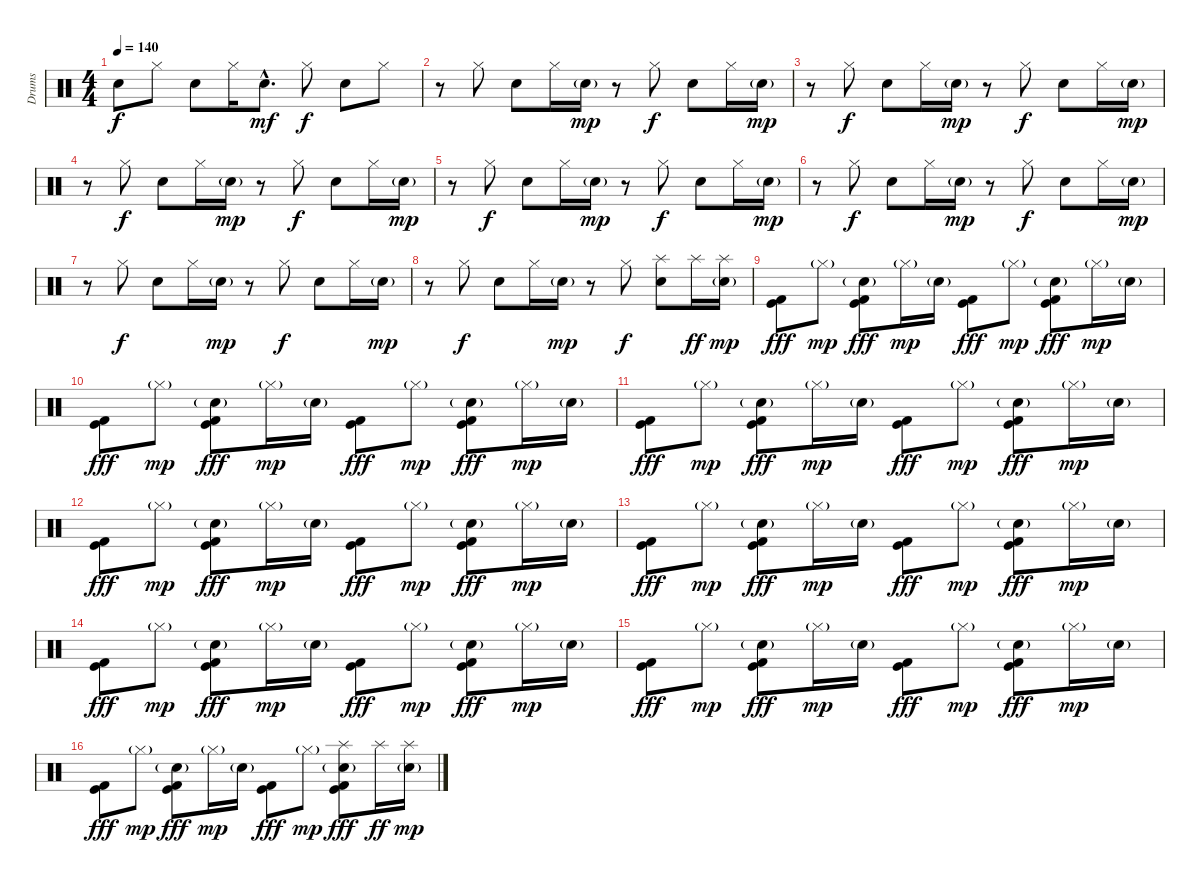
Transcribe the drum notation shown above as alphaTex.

\track ("Drums" "Drums") {instrument percussion}
\staff {score}
\articulation defaults
\ts (4 4)
\tempo 140
\clef neutral
\ks c "Snare (hit)"{t}.8{dy f} "Hi-Hat (closed)".8{volume 7} "Hand Clap (hit)".8 "Hi-Hat (closed)".16 "Hand Clap (hit)"{hac}.8{d dy mf} "Hi-Hat (closed)".8{dy f} "Hand Clap (hit)".8 "Hi-Hat (closed)".8
|
r.8 "Hi-Hat (closed)".8 "Hand Clap (hit)".8 "Hi-Hat (closed)".16 "Hand Clap (hit)"{g}.16{dy mp} r.8 "Hi-Hat (closed)".8{dy f} "Hand Clap (hit)".8 "Hi-Hat (closed)".16 "Hand Clap (hit)"{g}.16{dy mp} |
r.8 "Hi-Hat (closed)".8{dy f} "Hand Clap (hit)".8 "Hi-Hat (closed)".16 "Hand Clap (hit)"{g}.16{dy mp} r.8 "Hi-Hat (closed)".8{dy f} "Hand Clap (hit)".8 "Hi-Hat (closed)".16 "Hand Clap (hit)"{g}.16{dy mp} |
r.8{volume 13} "Hi-Hat (closed)".8{dy f} "Hand Clap (hit)".8 "Hi-Hat (closed)".16 "Hand Clap (hit)"{g}.16{dy mp} r.8 "Hi-Hat (closed)".8{dy f} "Hand Clap (hit)".8 "Hi-Hat (closed)".16 "Hand Clap (hit)"{g}.16{dy mp} |
r.8 "Hi-Hat (closed)".8{dy f} "Hand Clap (hit)".8 "Hi-Hat (closed)".16 "Hand Clap (hit)"{g}.16{dy mp} r.8 "Hi-Hat (closed)".8{dy f} "Hand Clap (hit)".8 "Hi-Hat (closed)".16 "Hand Clap (hit)"{g}.16{dy mp} |
r.8 "Hi-Hat (closed)".8{dy f} "Hand Clap (hit)".8 "Hi-Hat (closed)".16 "Hand Clap (hit)"{g}.16{dy mp} r.8 "Hi-Hat (closed)".8{dy f} "Hand Clap (hit)".8 "Hi-Hat (closed)".16 "Hand Clap (hit)"{g}.16{dy mp} |
r.8 "Hi-Hat (closed)".8{dy f} "Hand Clap (hit)".8 "Hi-Hat (closed)".16 "Hand Clap (hit)"{g}.16{dy mp} r.8 "Hi-Hat (closed)".8{dy f} "Hand Clap (hit)".8 "Hi-Hat (closed)".16 "Hand Clap (hit)"{g}.16{dy mp} |
r.8 "Hi-Hat (closed)".8{dy f} "Hand Clap (hit)".8 "Hi-Hat (closed)".16 "Hand Clap (hit)"{g}.16{dy mp} r.8 "Hi-Hat (closed)".8{dy f} ("Splash (hit)" "Hand Clap (hit)").8 "Splash (hit)".16{dy ff} ("Splash (hit)" "Hand Clap (hit)"{g}).16{dy mp} |
("Kick (hit) 2" "Kick (hit)").8{dy fff} "Hi-Hat (closed)"{g}.8{dy mp} ("Hand Clap (hit)"{g} "Kick (hit) 2" "Kick (hit)").8{dy fff} "Hi-Hat (closed)"{g}.16{dy mp} "Hand Clap (hit)"{g}.16 ("Kick (hit) 2" "Kick (hit)").8{dy fff} "Hi-Hat (closed)"{g}.8{dy mp} ("Hand Clap (hit)"{g} "Kick (hit) 2" "Kick (hit)").8{dy fff} "Hi-Hat (closed)"{g}.16{dy mp} "Hand Clap (hit)"{g}.16 |
("Kick (hit) 2" "Kick (hit)").8{dy fff} "Hi-Hat (closed)"{g}.8{dy mp} ("Hand Clap (hit)"{g} "Kick (hit) 2" "Kick (hit)").8{dy fff} "Hi-Hat (closed)"{g}.16{dy mp} "Hand Clap (hit)"{g}.16 ("Kick (hit) 2" "Kick (hit)").8{dy fff} "Hi-Hat (closed)"{g}.8{dy mp} ("Hand Clap (hit)"{g} "Kick (hit) 2" "Kick (hit)").8{dy fff} "Hi-Hat (closed)"{g}.16{dy mp} "Hand Clap (hit)"{g}.16 |
("Kick (hit) 2" "Kick (hit)").8{dy fff} "Hi-Hat (closed)"{g}.8{dy mp} ("Hand Clap (hit)"{g} "Kick (hit) 2" "Kick (hit)").8{dy fff} "Hi-Hat (closed)"{g}.16{dy mp} "Hand Clap (hit)"{g}.16 ("Kick (hit) 2" "Kick (hit)").8{dy fff} "Hi-Hat (closed)"{g}.8{dy mp} ("Hand Clap (hit)"{g} "Kick (hit) 2" "Kick (hit)").8{dy fff} "Hi-Hat (closed)"{g}.16{dy mp} "Hand Clap (hit)"{g}.16 |
("Kick (hit) 2" "Kick (hit)").8{dy fff} "Hi-Hat (closed)"{g}.8{dy mp} ("Hand Clap (hit)"{g} "Kick (hit) 2" "Kick (hit)").8{dy fff} "Hi-Hat (closed)"{g}.16{dy mp} "Hand Clap (hit)"{g}.16 ("Kick (hit) 2" "Kick (hit)").8{dy fff} "Hi-Hat (closed)"{g}.8{dy mp} ("Hand Clap (hit)"{g} "Kick (hit) 2" "Kick (hit)").8{dy fff} "Hi-Hat (closed)"{g}.16{dy mp} "Hand Clap (hit)"{g}.16 |
("Kick (hit) 2" "Kick (hit)").8{dy fff} "Hi-Hat (closed)"{g}.8{dy mp} ("Hand Clap (hit)"{g} "Kick (hit) 2" "Kick (hit)").8{dy fff} "Hi-Hat (closed)"{g}.16{dy mp} "Hand Clap (hit)"{g}.16 ("Kick (hit) 2" "Kick (hit)").8{dy fff} "Hi-Hat (closed)"{g}.8{dy mp} ("Hand Clap (hit)"{g} "Kick (hit) 2" "Kick (hit)").8{dy fff} "Hi-Hat (closed)"{g}.16{dy mp} "Hand Clap (hit)"{g}.16 |
("Kick (hit) 2" "Kick (hit)").8{dy fff} "Hi-Hat (closed)"{g}.8{dy mp} ("Hand Clap (hit)"{g} "Kick (hit) 2" "Kick (hit)").8{dy fff} "Hi-Hat (closed)"{g}.16{dy mp} "Hand Clap (hit)"{g}.16 ("Kick (hit) 2" "Kick (hit)").8{dy fff} "Hi-Hat (closed)"{g}.8{dy mp} ("Hand Clap (hit)"{g} "Kick (hit) 2" "Kick (hit)").8{dy fff} "Hi-Hat (closed)"{g}.16{dy mp} "Hand Clap (hit)"{g}.16 |
("Kick (hit) 2" "Kick (hit)").8{dy fff} "Hi-Hat (closed)"{g}.8{dy mp} ("Hand Clap (hit)"{g} "Kick (hit) 2" "Kick (hit)").8{dy fff} "Hi-Hat (closed)"{g}.16{dy mp} "Hand Clap (hit)"{g}.16 ("Kick (hit) 2" "Kick (hit)").8{dy fff} "Hi-Hat (closed)"{g}.8{dy mp} ("Hand Clap (hit)"{g} "Kick (hit) 2" "Kick (hit)").8{dy fff} "Hi-Hat (closed)"{g}.16{dy mp} "Hand Clap (hit)"{g}.16 |
("Kick (hit) 2" "Kick (hit)").8{dy fff} "Hi-Hat (closed)"{g}.8{dy mp} ("Hand Clap (hit)"{g} "Kick (hit) 2" "Kick (hit)").8{dy fff} "Hi-Hat (closed)"{g}.16{dy mp} "Hand Clap (hit)"{g}.16 ("Kick (hit) 2" "Kick (hit)").8{dy fff} "Hi-Hat (closed)"{g}.8{dy mp} ("Splash (hit)" "Hand Clap (hit)"{g} "Kick (hit) 2" "Kick (hit)").8{dy fff} "Splash (hit)".16{dy ff} ("Splash (hit)" "Hand Clap (hit)"{g}).16{dy mp}
